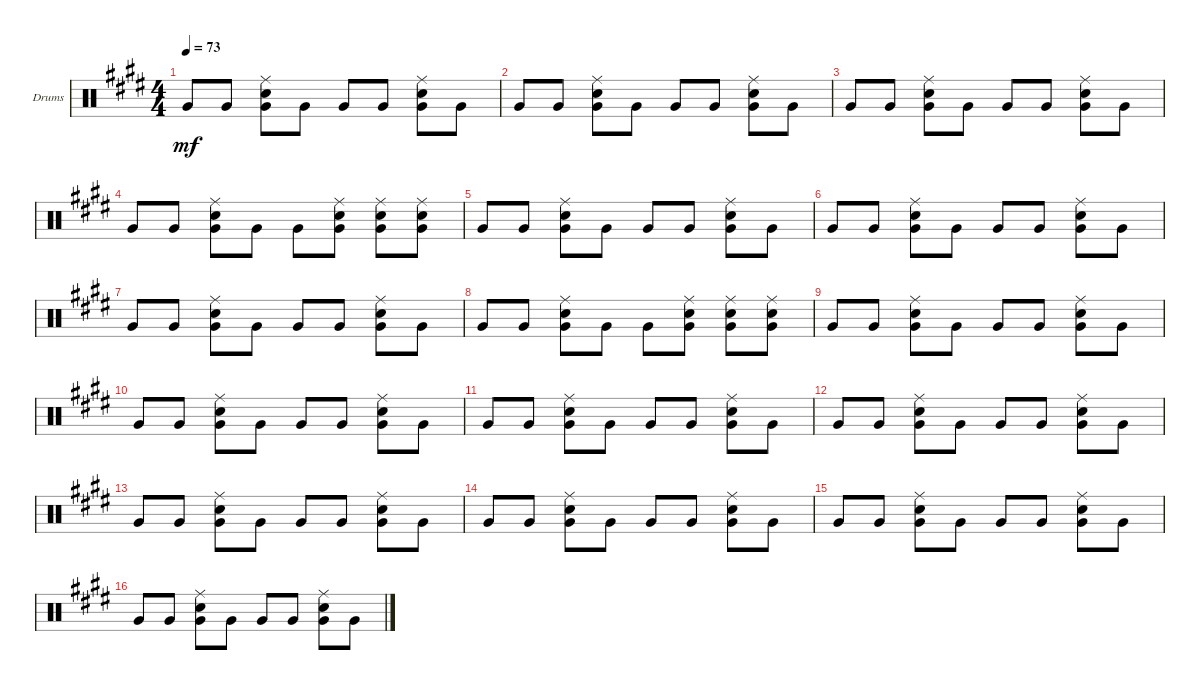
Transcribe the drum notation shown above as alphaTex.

\defaultSystemsLayout 4
\bracketExtendMode groupsimilarinstruments
\firstSystemTrackNameOrientation horizontal
\otherSystemsTrackNameOrientation horizontal
\track ("Drumkit" "Drums") {instrument percussion}
\staff {score}
\articulation defaults
\ts (4 4)
\tempo 73
\clef neutral
\ks e "Very Low Tom (hit)".8{dy mf} "Very Low Tom (hit)".8
("Very Low Tom (hit)" "Snare (hit) 2" "Ride (middle)").8 "Very Low Tom (hit)".8 "Very Low Tom (hit)".8 "Very Low Tom (hit)".8 ("Very Low Tom (hit)" "Snare (hit) 2" "Ride (middle)").8 "Very Low Tom (hit)".8 |
"Very Low Tom (hit)".8 "Very Low Tom (hit)".8 ("Very Low Tom (hit)" "Snare (hit) 2" "Ride (middle)").8 "Very Low Tom (hit)".8 "Very Low Tom (hit)".8 "Very Low Tom (hit)".8 ("Very Low Tom (hit)" "Snare (hit) 2" "Ride (middle)").8 "Very Low Tom (hit)".8 |
"Very Low Tom (hit)".8 "Very Low Tom (hit)".8 ("Very Low Tom (hit)" "Snare (hit) 2" "Ride (middle)").8 "Very Low Tom (hit)".8 "Very Low Tom (hit)".8 "Very Low Tom (hit)".8 ("Very Low Tom (hit)" "Snare (hit) 2" "Ride (middle)").8 "Very Low Tom (hit)".8 |
"Very Low Tom (hit)".8 "Very Low Tom (hit)".8 ("Very Low Tom (hit)" "Snare (hit) 2" "Ride (middle)").8 "Very Low Tom (hit)".8 "Very Low Tom (hit)".8 ("Very Low Tom (hit)" "Snare (hit) 2" "Ride (middle)").8 ("Very Low Tom (hit)" "Snare (hit) 2" "Ride (middle)").8 ("Very Low Tom (hit)" "Snare (hit) 2" "Ride (middle)").8 |
"Very Low Tom (hit)".8 "Very Low Tom (hit)".8 ("Very Low Tom (hit)" "Snare (hit) 2" "Ride (middle)").8 "Very Low Tom (hit)".8 "Very Low Tom (hit)".8 "Very Low Tom (hit)".8 ("Very Low Tom (hit)" "Snare (hit) 2" "Ride (middle)").8 "Very Low Tom (hit)".8 |
"Very Low Tom (hit)".8 "Very Low Tom (hit)".8 ("Very Low Tom (hit)" "Snare (hit) 2" "Ride (middle)").8 "Very Low Tom (hit)".8 "Very Low Tom (hit)".8 "Very Low Tom (hit)".8 ("Very Low Tom (hit)" "Snare (hit) 2" "Ride (middle)").8 "Very Low Tom (hit)".8 |
"Very Low Tom (hit)".8 "Very Low Tom (hit)".8 ("Very Low Tom (hit)" "Snare (hit) 2" "Ride (middle)").8 "Very Low Tom (hit)".8 "Very Low Tom (hit)".8 "Very Low Tom (hit)".8 ("Very Low Tom (hit)" "Snare (hit) 2" "Ride (middle)").8 "Very Low Tom (hit)".8 |
"Very Low Tom (hit)".8 "Very Low Tom (hit)".8 ("Very Low Tom (hit)" "Snare (hit) 2" "Ride (middle)").8 "Very Low Tom (hit)".8 "Very Low Tom (hit)".8 ("Very Low Tom (hit)" "Snare (hit) 2" "Ride (middle)").8 ("Very Low Tom (hit)" "Snare (hit) 2" "Ride (middle)").8 ("Very Low Tom (hit)" "Snare (hit) 2" "Ride (middle)").8 |
"Very Low Tom (hit)".8 "Very Low Tom (hit)".8 ("Very Low Tom (hit)" "Snare (hit) 2" "Ride (middle)").8 "Very Low Tom (hit)".8 "Very Low Tom (hit)".8 "Very Low Tom (hit)".8 ("Very Low Tom (hit)" "Snare (hit) 2" "Ride (middle)").8 "Very Low Tom (hit)".8 |
"Very Low Tom (hit)".8 "Very Low Tom (hit)".8 ("Very Low Tom (hit)" "Snare (hit) 2" "Ride (middle)").8 "Very Low Tom (hit)".8 "Very Low Tom (hit)".8 "Very Low Tom (hit)".8 ("Very Low Tom (hit)" "Snare (hit) 2" "Ride (middle)").8 "Very Low Tom (hit)".8 |
"Very Low Tom (hit)".8 "Very Low Tom (hit)".8 ("Very Low Tom (hit)" "Snare (hit) 2" "Ride (middle)").8 "Very Low Tom (hit)".8 "Very Low Tom (hit)".8 "Very Low Tom (hit)".8 ("Very Low Tom (hit)" "Snare (hit) 2" "Ride (middle)").8 "Very Low Tom (hit)".8 |
"Very Low Tom (hit)".8 "Very Low Tom (hit)".8 ("Very Low Tom (hit)" "Snare (hit) 2" "Ride (middle)").8 "Very Low Tom (hit)".8 "Very Low Tom (hit)".8 "Very Low Tom (hit)".8 ("Very Low Tom (hit)" "Snare (hit) 2" "Ride (middle)").8 "Very Low Tom (hit)".8 |
"Very Low Tom (hit)".8 "Very Low Tom (hit)".8 ("Very Low Tom (hit)" "Snare (hit) 2" "Ride (middle)").8 "Very Low Tom (hit)".8 "Very Low Tom (hit)".8 "Very Low Tom (hit)".8 ("Very Low Tom (hit)" "Snare (hit) 2" "Ride (middle)").8 "Very Low Tom (hit)".8 |
"Very Low Tom (hit)".8 "Very Low Tom (hit)".8 ("Very Low Tom (hit)" "Snare (hit) 2" "Ride (middle)").8 "Very Low Tom (hit)".8 "Very Low Tom (hit)".8 "Very Low Tom (hit)".8 ("Very Low Tom (hit)" "Snare (hit) 2" "Ride (middle)").8 "Very Low Tom (hit)".8 |
"Very Low Tom (hit)".8 "Very Low Tom (hit)".8 ("Very Low Tom (hit)" "Snare (hit) 2" "Ride (middle)").8 "Very Low Tom (hit)".8 "Very Low Tom (hit)".8 "Very Low Tom (hit)".8 ("Very Low Tom (hit)" "Snare (hit) 2" "Ride (middle)").8 "Very Low Tom (hit)".8 |
"Very Low Tom (hit)".8 "Very Low Tom (hit)".8 ("Very Low Tom (hit)" "Snare (hit) 2" "Ride (middle)").8 "Very Low Tom (hit)".8 "Very Low Tom (hit)".8 "Very Low Tom (hit)".8 ("Very Low Tom (hit)" "Snare (hit) 2" "Ride (middle)").8 "Very Low Tom (hit)".8
